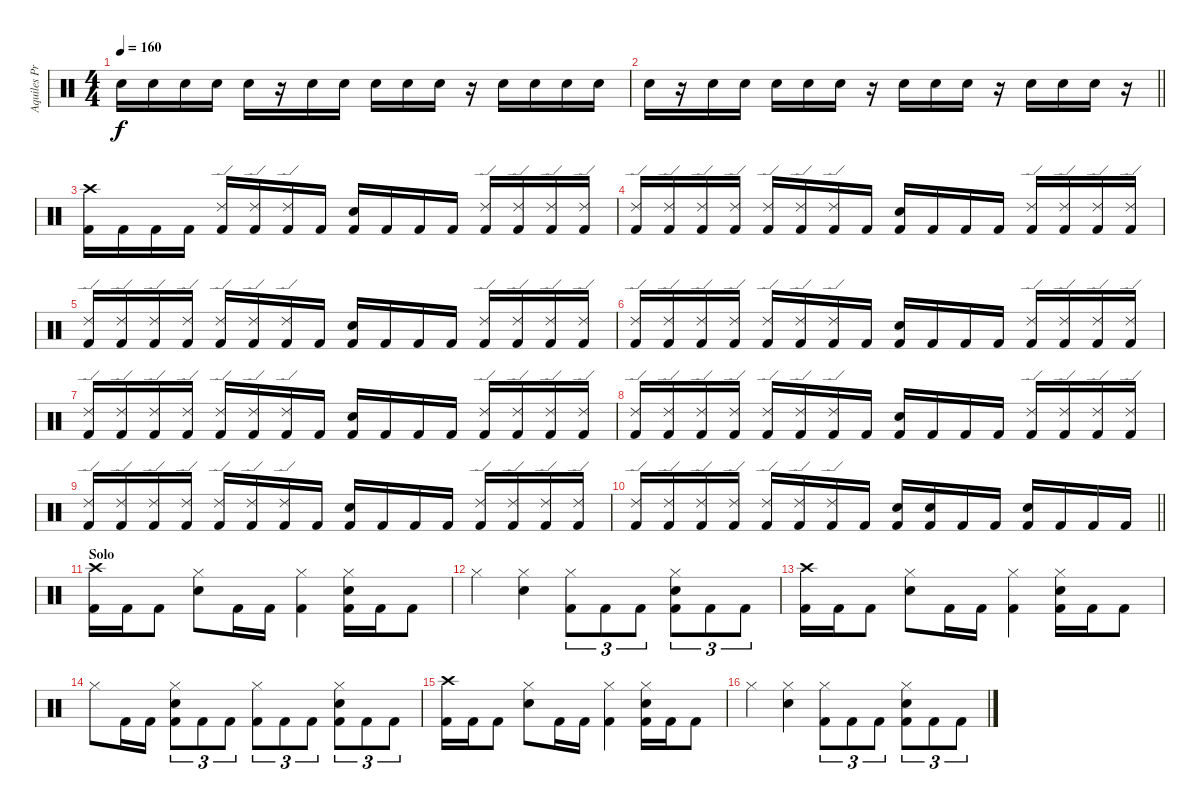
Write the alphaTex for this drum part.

\track ("Aquiles Priester" "Aquiles Pr") {instrument percussion}
\staff {score}
\articulation defaults
\ts (4 4)
\tempo 160
\clef neutral
\ks c "Electric Snare (hit)".16{dy f} "Electric Snare (hit)".16 "Electric Snare (hit)".16 "Electric Snare (hit)".16 "Electric Snare (hit)".16
r.16 "Electric Snare (hit)".16 "Electric Snare (hit)".16 "Electric Snare (hit)".16 "Electric Snare (hit)".16 "Electric Snare (hit)".16 r.16 "Electric Snare (hit)".16 "Electric Snare (hit)".16 "Electric Snare (hit)".16 "Electric Snare (hit)".16 |
\barLineRight lightlight "Electric Snare (hit)".16
r.16 "Electric Snare (hit)".16 "Electric Snare (hit)".16 "Electric Snare (hit)".16 "Electric Snare (hit)".16 "Electric Snare (hit)".16 r.16 "Electric Snare (hit)".16 "Electric Snare (hit)".16 "Electric Snare (hit)".16 r.16 "Electric Snare (hit)".16 "Electric Snare (hit)".16 "Electric Snare (hit)".16 r.16 |
("Crash high (hit)" "Kick (hit) 2").16 "Kick (hit) 2".16 "Kick (hit) 2".16 "Kick (hit) 2".16 ("Ride (edge) 2" "Kick (hit) 2").16 ("Ride (edge) 2" "Kick (hit) 2").16 ("Ride (edge) 2" "Kick (hit) 2").16 "Kick (hit) 2".16 ("Electric Snare (hit)" "Kick (hit) 2").16 "Kick (hit) 2".16 "Kick (hit) 2".16 "Kick (hit) 2".16 ("Ride (edge) 2" "Kick (hit) 2").16 ("Ride (edge) 2" "Kick (hit) 2").16 ("Ride (edge) 2" "Kick (hit) 2").16 ("Ride (edge) 2" "Kick (hit) 2").16 |
("Ride (edge) 2" "Kick (hit) 2").16 ("Ride (edge) 2" "Kick (hit) 2").16 ("Ride (edge) 2" "Kick (hit) 2").16 ("Ride (edge) 2" "Kick (hit) 2").16 ("Ride (edge) 2" "Kick (hit) 2").16 ("Ride (edge) 2" "Kick (hit) 2").16 ("Ride (edge) 2" "Kick (hit) 2").16 "Kick (hit) 2".16 ("Electric Snare (hit)" "Kick (hit) 2").16 "Kick (hit) 2".16 "Kick (hit) 2".16 "Kick (hit) 2".16 ("Ride (edge) 2" "Kick (hit) 2").16 ("Ride (edge) 2" "Kick (hit) 2").16 ("Ride (edge) 2" "Kick (hit) 2").16 ("Ride (edge) 2" "Kick (hit) 2").16 |
("Ride (edge) 2" "Kick (hit) 2").16 ("Ride (edge) 2" "Kick (hit) 2").16 ("Ride (edge) 2" "Kick (hit) 2").16 ("Ride (edge) 2" "Kick (hit) 2").16 ("Ride (edge) 2" "Kick (hit) 2").16 ("Ride (edge) 2" "Kick (hit) 2").16 ("Ride (edge) 2" "Kick (hit) 2").16 "Kick (hit) 2".16 ("Electric Snare (hit)" "Kick (hit) 2").16 "Kick (hit) 2".16 "Kick (hit) 2".16 "Kick (hit) 2".16 ("Ride (edge) 2" "Kick (hit) 2").16 ("Ride (edge) 2" "Kick (hit) 2").16 ("Ride (edge) 2" "Kick (hit) 2").16 ("Ride (edge) 2" "Kick (hit) 2").16 |
("Ride (edge) 2" "Kick (hit) 2").16 ("Ride (edge) 2" "Kick (hit) 2").16 ("Ride (edge) 2" "Kick (hit) 2").16 ("Ride (edge) 2" "Kick (hit) 2").16 ("Ride (edge) 2" "Kick (hit) 2").16 ("Ride (edge) 2" "Kick (hit) 2").16 ("Ride (edge) 2" "Kick (hit) 2").16 "Kick (hit) 2".16 ("Electric Snare (hit)" "Kick (hit) 2").16 "Kick (hit) 2".16 "Kick (hit) 2".16 "Kick (hit) 2".16 ("Ride (edge) 2" "Kick (hit) 2").16 ("Ride (edge) 2" "Kick (hit) 2").16 ("Ride (edge) 2" "Kick (hit) 2").16 ("Ride (edge) 2" "Kick (hit) 2").16 |
("Ride (edge) 2" "Kick (hit) 2").16 ("Ride (edge) 2" "Kick (hit) 2").16 ("Ride (edge) 2" "Kick (hit) 2").16 ("Ride (edge) 2" "Kick (hit) 2").16 ("Ride (edge) 2" "Kick (hit) 2").16 ("Ride (edge) 2" "Kick (hit) 2").16 ("Ride (edge) 2" "Kick (hit) 2").16 "Kick (hit) 2".16 ("Electric Snare (hit)" "Kick (hit) 2").16 "Kick (hit) 2".16 "Kick (hit) 2".16 "Kick (hit) 2".16 ("Ride (edge) 2" "Kick (hit) 2").16 ("Ride (edge) 2" "Kick (hit) 2").16 ("Ride (edge) 2" "Kick (hit) 2").16 ("Ride (edge) 2" "Kick (hit) 2").16 |
("Ride (edge) 2" "Kick (hit) 2").16 ("Ride (edge) 2" "Kick (hit) 2").16 ("Ride (edge) 2" "Kick (hit) 2").16 ("Ride (edge) 2" "Kick (hit) 2").16 ("Ride (edge) 2" "Kick (hit) 2").16 ("Ride (edge) 2" "Kick (hit) 2").16 ("Ride (edge) 2" "Kick (hit) 2").16 "Kick (hit) 2".16 ("Electric Snare (hit)" "Kick (hit) 2").16 "Kick (hit) 2".16 "Kick (hit) 2".16 "Kick (hit) 2".16 ("Ride (edge) 2" "Kick (hit) 2").16 ("Ride (edge) 2" "Kick (hit) 2").16 ("Ride (edge) 2" "Kick (hit) 2").16 ("Ride (edge) 2" "Kick (hit) 2").16 |
("Ride (edge) 2" "Kick (hit) 2").16 ("Ride (edge) 2" "Kick (hit) 2").16 ("Ride (edge) 2" "Kick (hit) 2").16 ("Ride (edge) 2" "Kick (hit) 2").16 ("Ride (edge) 2" "Kick (hit) 2").16 ("Ride (edge) 2" "Kick (hit) 2").16 ("Ride (edge) 2" "Kick (hit) 2").16 "Kick (hit) 2".16 ("Electric Snare (hit)" "Kick (hit) 2").16 "Kick (hit) 2".16 "Kick (hit) 2".16 "Kick (hit) 2".16 ("Ride (edge) 2" "Kick (hit) 2").16 ("Ride (edge) 2" "Kick (hit) 2").16 ("Ride (edge) 2" "Kick (hit) 2").16 ("Ride (edge) 2" "Kick (hit) 2").16 |
\barLineRight lightlight
("Ride (edge) 2" "Kick (hit) 2").16 ("Ride (edge) 2" "Kick (hit) 2").16 ("Ride (edge) 2" "Kick (hit) 2").16 ("Ride (edge) 2" "Kick (hit) 2").16 ("Ride (edge) 2" "Kick (hit) 2").16 ("Ride (edge) 2" "Kick (hit) 2").16 ("Ride (edge) 2" "Kick (hit) 2").16 "Kick (hit) 2".16 ("Electric Snare (hit)" "Kick (hit) 2").16 ("Electric Snare (hit)" "Kick (hit) 2").16 "Kick (hit) 2".16 "Kick (hit) 2".16 ("Electric Snare (hit)" "Kick (hit) 2").16 "Kick (hit) 2".16 "Kick (hit) 2".16 "Kick (hit) 2".16 |
\section ("" "Solo")
("Crash high (hit)" "Kick (hit) 2").16 "Kick (hit) 2".16 "Kick (hit) 2".8 ("Hi-Hat (closed)" "Electric Snare (hit)").8 "Kick (hit) 2".16 "Kick (hit) 2".16 ("Hi-Hat (closed)" "Kick (hit) 2").4 ("Hi-Hat (closed)" "Electric Snare (hit)" "Kick (hit) 2").16 "Kick (hit) 2".16 "Kick (hit) 2".8 |
"Hi-Hat (closed)".4 ("Hi-Hat (closed)" "Electric Snare (hit)").4 ("Hi-Hat (closed)" "Kick (hit) 2").8{tu (3 2)} "Kick (hit) 2".8{tu (3 2)} "Kick (hit) 2".8{tu (3 2)} ("Hi-Hat (closed)" "Electric Snare (hit)" "Kick (hit) 2").8{tu (3 2)} "Kick (hit) 2".8{tu (3 2)} "Kick (hit) 2".8{tu (3 2)} |
("Crash high (hit)" "Kick (hit) 2").16 "Kick (hit) 2".16 "Kick (hit) 2".8 ("Hi-Hat (closed)" "Electric Snare (hit)").8 "Kick (hit) 2".16 "Kick (hit) 2".16 ("Hi-Hat (closed)" "Kick (hit) 2").4 ("Hi-Hat (closed)" "Electric Snare (hit)" "Kick (hit) 2").16 "Kick (hit) 2".16 "Kick (hit) 2".8 |
"Hi-Hat (closed)".8 "Kick (hit) 2".16 "Kick (hit) 2".16 ("Hi-Hat (closed)" "Electric Snare (hit)" "Kick (hit) 2").8{tu (3 2)} "Kick (hit) 2".8{tu (3 2)} "Kick (hit) 2".8{tu (3 2)} ("Hi-Hat (closed)" "Kick (hit) 2").8{tu (3 2)} "Kick (hit) 2".8{tu (3 2)} "Kick (hit) 2".8{tu (3 2)} ("Hi-Hat (closed)" "Electric Snare (hit)" "Kick (hit) 2").8{tu (3 2)} "Kick (hit) 2".8{tu (3 2)} "Kick (hit) 2".8{tu (3 2)} |
("Crash high (hit)" "Kick (hit) 2").16 "Kick (hit) 2".16 "Kick (hit) 2".8 ("Hi-Hat (closed)" "Electric Snare (hit)").8 "Kick (hit) 2".16 "Kick (hit) 2".16 ("Hi-Hat (closed)" "Kick (hit) 2").4 ("Hi-Hat (closed)" "Electric Snare (hit)" "Kick (hit) 2").16 "Kick (hit) 2".16 "Kick (hit) 2".8 |
"Hi-Hat (closed)".4 ("Hi-Hat (closed)" "Electric Snare (hit)").4 ("Hi-Hat (closed)" "Kick (hit) 2").8{tu (3 2)} "Kick (hit) 2".8{tu (3 2)} "Kick (hit) 2".8{tu (3 2)} ("Hi-Hat (closed)" "Electric Snare (hit)" "Kick (hit) 2").8{tu (3 2)} "Kick (hit) 2".8{tu (3 2)} "Kick (hit) 2".8{tu (3 2)}
